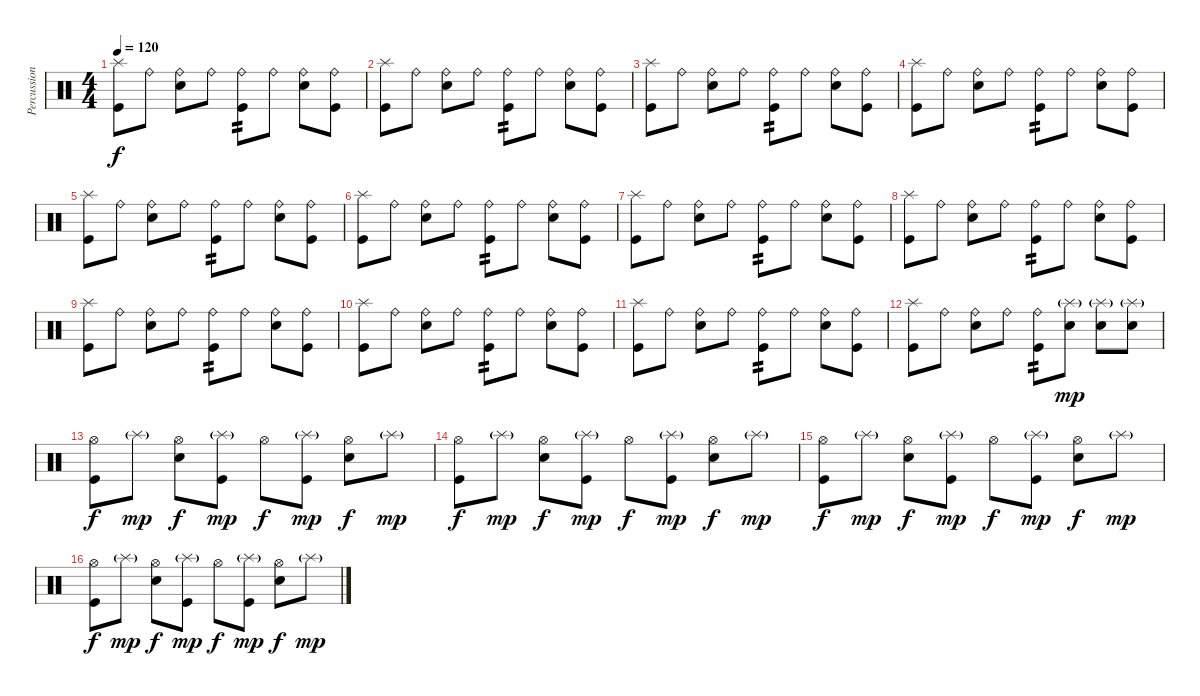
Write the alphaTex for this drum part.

\track ("Percussion" "Percussion") {instrument percussion}
\staff {score}
\articulation defaults
\ts (4 4)
\tempo 120
\clef neutral
\ks c
("Kick (hit)" "Splash (hit)").8{dy f} "Ride (bell)".8 ("Electric Snare (hit)" "Ride (bell)").8 "Ride (bell)".8 ("Kick (hit)" "Ride (bell)").8{tp 2} "Ride (bell)".8 ("Electric Snare (hit)" "Ride (bell)").8 ("Kick (hit)" "Ride (bell)").8 |
("Kick (hit)" "Splash (hit)").8 "Ride (bell)".8 ("Electric Snare (hit)" "Ride (bell)").8 "Ride (bell)".8 ("Kick (hit)" "Ride (bell)").8{tp 2} "Ride (bell)".8 ("Electric Snare (hit)" "Ride (bell)").8 ("Kick (hit)" "Ride (bell)").8 |
("Kick (hit)" "Splash (hit)").8 "Ride (bell)".8 ("Electric Snare (hit)" "Ride (bell)").8 "Ride (bell)".8 ("Kick (hit)" "Ride (bell)").8{tp 2} "Ride (bell)".8 ("Electric Snare (hit)" "Ride (bell)").8 ("Kick (hit)" "Ride (bell)").8 |
("Kick (hit)" "Splash (hit)").8 "Ride (bell)".8 ("Electric Snare (hit)" "Ride (bell)").8 "Ride (bell)".8 ("Kick (hit)" "Ride (bell)").8{tp 2} "Ride (bell)".8 ("Electric Snare (hit)" "Ride (bell)").8 ("Kick (hit)" "Ride (bell)").8 |
("Kick (hit)" "Splash (hit)").8 "Ride (bell)".8 ("Electric Snare (hit)" "Ride (bell)").8 "Ride (bell)".8 ("Kick (hit)" "Ride (bell)").8{tp 2} "Ride (bell)".8 ("Electric Snare (hit)" "Ride (bell)").8 ("Kick (hit)" "Ride (bell)").8 |
("Kick (hit)" "Splash (hit)").8 "Ride (bell)".8 ("Electric Snare (hit)" "Ride (bell)").8 "Ride (bell)".8 ("Kick (hit)" "Ride (bell)").8{tp 2} "Ride (bell)".8 ("Electric Snare (hit)" "Ride (bell)").8 ("Kick (hit)" "Ride (bell)").8 |
("Kick (hit)" "Splash (hit)").8 "Ride (bell)".8 ("Electric Snare (hit)" "Ride (bell)").8 "Ride (bell)".8 ("Kick (hit)" "Ride (bell)").8{tp 2} "Ride (bell)".8 ("Electric Snare (hit)" "Ride (bell)").8 ("Kick (hit)" "Ride (bell)").8 |
("Kick (hit)" "Splash (hit)").8 "Ride (bell)".8 ("Electric Snare (hit)" "Ride (bell)").8 "Ride (bell)".8 ("Kick (hit)" "Ride (bell)").8{tp 2} "Ride (bell)".8 ("Electric Snare (hit)" "Ride (bell)").8 ("Kick (hit)" "Ride (bell)").8 |
("Kick (hit)" "Splash (hit)").8 "Ride (bell)".8 ("Electric Snare (hit)" "Ride (bell)").8 "Ride (bell)".8 ("Kick (hit)" "Ride (bell)").8{tp 2} "Ride (bell)".8 ("Electric Snare (hit)" "Ride (bell)").8 ("Kick (hit)" "Ride (bell)").8 |
("Kick (hit)" "Splash (hit)").8 "Ride (bell)".8 ("Electric Snare (hit)" "Ride (bell)").8 "Ride (bell)".8 ("Kick (hit)" "Ride (bell)").8{tp 2} "Ride (bell)".8 ("Electric Snare (hit)" "Ride (bell)").8 ("Kick (hit)" "Ride (bell)").8 |
("Kick (hit)" "Splash (hit)").8 "Ride (bell)".8 ("Electric Snare (hit)" "Ride (bell)").8 "Ride (bell)".8 ("Kick (hit)" "Ride (bell)").8{tp 2} "Ride (bell)".8 ("Electric Snare (hit)" "Ride (bell)").8 ("Kick (hit)" "Ride (bell)").8 |
("Kick (hit)" "Splash (hit)").8 "Ride (bell)".8 ("Electric Snare (hit)" "Ride (bell)").8 "Ride (bell)".8 ("Kick (hit)" "Ride (bell)").8{tp 2} ("Electric Snare (hit)" "Splash (hit)"{g}).8{dy mp} ("Electric Snare (hit)" "Splash (hit)"{g}).8 ("Electric Snare (hit)" "Splash (hit)"{g}).8 |
("Hi-Hat (open)" "Kick (hit)").8{dy f} "Splash (hit)"{g}.8{dy mp} ("Hi-Hat (open)" "Electric Snare (hit)").8{dy f} ("Splash (hit)"{g} "Kick (hit)").8{dy mp} "Hi-Hat (open)".8{dy f} ("Splash (hit)"{g} "Kick (hit)").8{dy mp} ("Hi-Hat (open)" "Electric Snare (hit)").8{dy f} "Splash (hit)"{g}.8{dy mp} |
("Hi-Hat (open)" "Kick (hit)").8{dy f} "Splash (hit)"{g}.8{dy mp} ("Hi-Hat (open)" "Electric Snare (hit)").8{dy f} ("Splash (hit)"{g} "Kick (hit)").8{dy mp} "Hi-Hat (open)".8{dy f} ("Splash (hit)"{g} "Kick (hit)").8{dy mp} ("Hi-Hat (open)" "Electric Snare (hit)").8{dy f} "Splash (hit)"{g}.8{dy mp} |
("Hi-Hat (open)" "Kick (hit)").8{dy f} "Splash (hit)"{g}.8{dy mp} ("Hi-Hat (open)" "Electric Snare (hit)").8{dy f} ("Splash (hit)"{g} "Kick (hit)").8{dy mp} "Hi-Hat (open)".8{dy f} ("Splash (hit)"{g} "Kick (hit)").8{dy mp} ("Hi-Hat (open)" "Electric Snare (hit)").8{dy f} "Splash (hit)"{g}.8{dy mp} |
("Hi-Hat (open)" "Kick (hit)").8{dy f} "Splash (hit)"{g}.8{dy mp} ("Hi-Hat (open)" "Electric Snare (hit)").8{dy f} ("Splash (hit)"{g} "Kick (hit)").8{dy mp} "Hi-Hat (open)".8{dy f} ("Splash (hit)"{g} "Kick (hit)").8{dy mp} ("Hi-Hat (open)" "Electric Snare (hit)").8{dy f} "Splash (hit)"{g}.8{dy mp}
